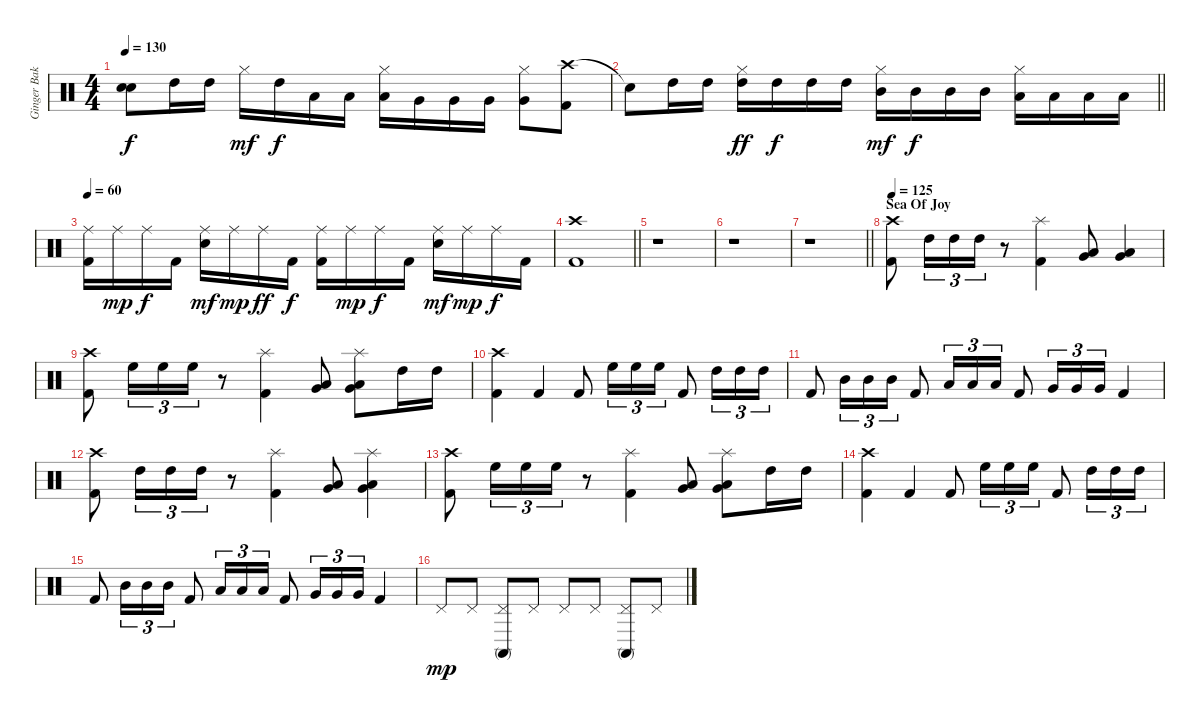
\track ("Ginger Baker (Drums)" "Ginger Bak") {instrument percussion}
\staff {score}
\articulation defaults
\ts (4 4)
\tempo 130
\clef neutral
\ks c
("Snare (hit)"{t} "Snare (hit)"{t}).8{dy f} "High Tom (hit)".16 "High Tom (hit)".16 "Hi-Hat (closed)".16{dy mf} "High Tom (hit)".16{dy f} "Low Tom (hit)".16 "Low Tom (hit)".16 ("Hi-Hat (closed)" "Low Tom (hit)").16 "Very Low Tom (hit)".16 "Very Low Tom (hit)".16 "Very Low Tom (hit)".16 ("Hi-Hat (closed)" "Very Low Tom (hit)").8 ("Crash high (hit)" "Kick (hit) 2").8 |
\barLineRight lightlight "Snare (hit)"{t}.8 "High Tom (hit)".16 "High Tom (hit)".16
("Hi-Hat (closed)" "High Tom (hit)").16{dy ff} "High Tom (hit)".16{dy f} "High Tom (hit)".16 "High Tom (hit)".16 ("Hi-Hat (closed)" "Mid Tom (hit)").16{dy mf} "Mid Tom (hit)".16{dy f} "Mid Tom (hit)".16 "Mid Tom (hit)".16 ("Hi-Hat (closed)" "Low Tom (hit)").16 "Low Tom (hit)".16 "Low Tom (hit)".16 "Low Tom (hit)".16 |
\tempo 60
("Ride (middle)" "Kick (hit) 2").16 "Ride (middle)".16{dy mp} "Ride (middle)".16{dy f} "Kick (hit) 2".16 ("Ride (middle)" "Snare (hit) 2").16{dy mf} "Ride (middle)".16{dy mp} "Ride (middle)".16{dy ff} "Kick (hit) 2".16{dy f} ("Ride (middle)" "Kick (hit) 2").16 "Ride (middle)".16{dy mp} "Ride (middle)".16{dy f} "Kick (hit) 2".16 ("Ride (middle)" "Snare (hit) 2").16{dy mf} "Ride (middle)".16{dy mp} "Ride (middle)".16{dy f} "Kick (hit) 2".16 |
\barLineRight lightlight
("Crash high (hit)" "Kick (hit) 2").1 |
r.1 |
r.1 |
\barLineRight lightlight
r.1 |
\section ("" "Sea Of Joy")
\tempo 125
("Crash high (hit)" "Kick (hit) 2").8 "High Tom (hit)".16{tu (3 2)} "High Tom (hit)".16{tu (3 2)} "High Tom (hit)".16{tu (3 2)} r.8 ("Splash (hit)" "Kick (hit) 2").4 ("Low Tom (hit)" "Very Low Tom (hit)").8 ("Low Tom (hit)" "Very Low Tom (hit)").4 |
("Crash high (hit)" "Kick (hit) 2").8 "High Floor Tom (hit)".16{tu (3 2)} "High Floor Tom (hit)".16{tu (3 2)} "High Floor Tom (hit)".16{tu (3 2)} r.8 ("Splash (hit)" "Kick (hit) 2").4 ("Low Tom (hit)" "Very Low Tom (hit)").8 ("Splash (hit)" "Low Tom (hit)" "Very Low Tom (hit)").8 "High Tom (hit)".16 "High Tom (hit)".16 |
("Crash high (hit)" "Kick (hit) 2").4 "Kick (hit) 2".4 "Kick (hit) 2".8 "High Floor Tom (hit)".16{tu (3 2)} "High Floor Tom (hit)".16{tu (3 2)} "High Floor Tom (hit)".16{tu (3 2)} "Kick (hit) 2".8 "High Tom (hit)".16{tu (3 2)} "High Tom (hit)".16{tu (3 2)} "High Tom (hit)".16{tu (3 2)} |
"Kick (hit) 2".8 "Mid Tom (hit)".16{tu (3 2)} "Mid Tom (hit)".16{tu (3 2)} "Mid Tom (hit)".16{tu (3 2)} "Kick (hit) 2".8 "Low Tom (hit)".16{tu (3 2)} "Low Tom (hit)".16{tu (3 2)} "Low Tom (hit)".16{tu (3 2)} "Kick (hit) 2".8 "Very Low Tom (hit)".16{tu (3 2)} "Very Low Tom (hit)".16{tu (3 2)} "Very Low Tom (hit)".16{tu (3 2)} "Kick (hit) 2".4 |
("Crash high (hit)" "Kick (hit) 2").8 "High Tom (hit)".16{tu (3 2)} "High Tom (hit)".16{tu (3 2)} "High Tom (hit)".16{tu (3 2)} r.8 ("Splash (hit)" "Kick (hit) 2").4 ("Low Tom (hit)" "Very Low Tom (hit)").8 ("Splash (hit)" "Low Tom (hit)" "Very Low Tom (hit)").4 |
("Crash high (hit)" "Kick (hit) 2").8 "High Floor Tom (hit)".16{tu (3 2)} "High Floor Tom (hit)".16{tu (3 2)} "High Floor Tom (hit)".16{tu (3 2)} r.8 ("Splash (hit)" "Kick (hit) 2").4 ("Low Tom (hit)" "Very Low Tom (hit)").8 ("Splash (hit)" "Low Tom (hit)" "Very Low Tom (hit)").8 "High Tom (hit)".16 "High Tom (hit)".16 |
("Crash high (hit)" "Kick (hit) 2").4 "Kick (hit) 2".4 "Kick (hit) 2".8 "High Floor Tom (hit)".16{tu (3 2)} "High Floor Tom (hit)".16{tu (3 2)} "High Floor Tom (hit)".16{tu (3 2)} "Kick (hit) 2".8 "High Tom (hit)".16{tu (3 2)} "High Tom (hit)".16{tu (3 2)} "High Tom (hit)".16{tu (3 2)} |
"Kick (hit) 2".8 "Mid Tom (hit)".16{tu (3 2)} "Mid Tom (hit)".16{tu (3 2)} "Mid Tom (hit)".16{tu (3 2)} "Kick (hit) 2".8 "Low Tom (hit)".16{tu (3 2)} "Low Tom (hit)".16{tu (3 2)} "Low Tom (hit)".16{tu (3 2)} "Kick (hit) 2".8 "Very Low Tom (hit)".16{tu (3 2)} "Very Low Tom (hit)".16{tu (3 2)} "Very Low Tom (hit)".16{tu (3 2)} "Kick (hit) 2".4 |
"Pedal Hi-Hat (hit)".8{dy mp} "Pedal Hi-Hat (hit)".8 ("Pedal Hi-Hat (hit)" "Conga high (mute)").8 "Pedal Hi-Hat (hit)".8 "Pedal Hi-Hat (hit)".8 "Pedal Hi-Hat (hit)".8 ("Pedal Hi-Hat (hit)" "Conga high (mute)").8 "Pedal Hi-Hat (hit)".8
